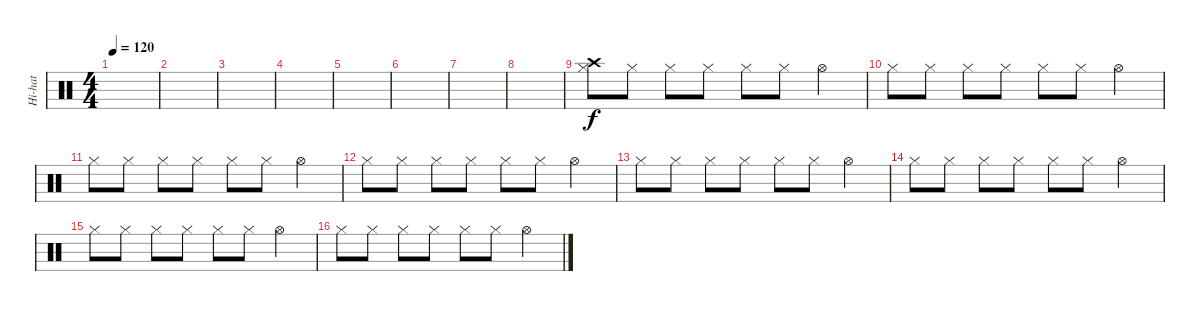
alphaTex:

\track ("Hi-hat" "Hi-hat") {instrument percussion}
\staff {score}
\articulation defaults
\ts (4 4)
\tempo 120
\clef neutral
\ks c
|
|
|
|
|
|
|
|
("Hi-Hat (closed)" "Crash high (hit)").8 "Hi-Hat (closed)".8 "Hi-Hat (closed)".8 "Hi-Hat (closed)".8 "Hi-Hat (closed)".8 "Hi-Hat (closed)".8 "Hi-Hat (open)".4 |
"Hi-Hat (closed)".8 "Hi-Hat (closed)".8 "Hi-Hat (closed)".8 "Hi-Hat (closed)".8 "Hi-Hat (closed)".8 "Hi-Hat (closed)".8 "Hi-Hat (open)".4 |
"Hi-Hat (closed)".8 "Hi-Hat (closed)".8 "Hi-Hat (closed)".8 "Hi-Hat (closed)".8 "Hi-Hat (closed)".8 "Hi-Hat (closed)".8 "Hi-Hat (open)".4 |
"Hi-Hat (closed)".8 "Hi-Hat (closed)".8 "Hi-Hat (closed)".8 "Hi-Hat (closed)".8 "Hi-Hat (closed)".8 "Hi-Hat (closed)".8 "Hi-Hat (open)".4 |
"Hi-Hat (closed)".8 "Hi-Hat (closed)".8 "Hi-Hat (closed)".8 "Hi-Hat (closed)".8 "Hi-Hat (closed)".8 "Hi-Hat (closed)".8 "Hi-Hat (open)".4 |
"Hi-Hat (closed)".8 "Hi-Hat (closed)".8 "Hi-Hat (closed)".8 "Hi-Hat (closed)".8 "Hi-Hat (closed)".8 "Hi-Hat (closed)".8 "Hi-Hat (open)".4 |
"Hi-Hat (closed)".8 "Hi-Hat (closed)".8 "Hi-Hat (closed)".8 "Hi-Hat (closed)".8 "Hi-Hat (closed)".8 "Hi-Hat (closed)".8 "Hi-Hat (open)".4 |
"Hi-Hat (closed)".8 "Hi-Hat (closed)".8 "Hi-Hat (closed)".8 "Hi-Hat (closed)".8 "Hi-Hat (closed)".8 "Hi-Hat (closed)".8 "Hi-Hat (open)".4
